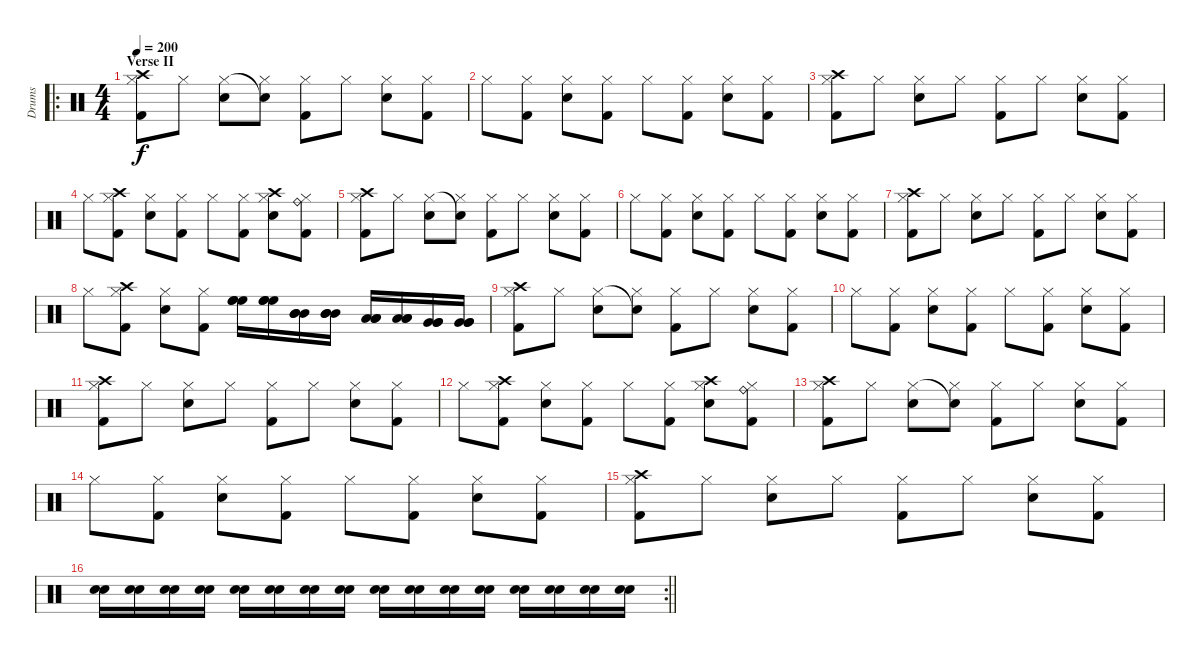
\track ("Drums" "Drums") {instrument percussion}
\staff {score}
\articulation defaults
\ro
\ts (4 4)
\section ("" "Verse II")
\tempo 200
\clef neutral
\ks c
("Crash high (hit)" "Hi-Hat (closed)" "Kick (hit) 2").8{dy f} "Hi-Hat (closed)".8 ("Hi-Hat (closed)" "Electric Snare (hit)").8 ("Snare (hit)"{t} "Hi-Hat (closed)").8 ("Hi-Hat (closed)" "Kick (hit) 2").8 "Hi-Hat (closed)".8 ("Hi-Hat (closed)" "Electric Snare (hit)").8 ("Hi-Hat (closed)" "Kick (hit) 2").8 |
"Hi-Hat (closed)".8 ("Hi-Hat (closed)" "Kick (hit) 2").8 ("Hi-Hat (closed)" "Electric Snare (hit)").8 ("Hi-Hat (closed)" "Kick (hit) 2").8 "Hi-Hat (closed)".8 ("Hi-Hat (closed)" "Kick (hit) 2").8 ("Hi-Hat (closed)" "Electric Snare (hit)").8 ("Hi-Hat (closed)" "Kick (hit) 2").8 |
("Crash high (hit)" "Hi-Hat (closed)" "Kick (hit) 2").8 "Hi-Hat (closed)".8 ("Hi-Hat (closed)" "Electric Snare (hit)").8 "Hi-Hat (closed)".8 ("Hi-Hat (closed)" "Kick (hit) 2").8 "Hi-Hat (closed)".8 ("Hi-Hat (closed)" "Electric Snare (hit)").8 ("Hi-Hat (closed)" "Kick (hit) 2").8 |
"Hi-Hat (closed)".8 ("Crash high (hit)" "Hi-Hat (closed)" "Kick (hit) 2").8 ("Hi-Hat (closed)" "Electric Snare (hit)").8 ("Hi-Hat (closed)" "Kick (hit) 2").8 "Hi-Hat (closed)".8 ("Hi-Hat (closed)" "Kick (hit) 2").8 ("Crash high (hit)" "Hi-Hat (closed)" "Electric Snare (hit)").8 ("Ride (bell)" "Hi-Hat (closed)" "Kick (hit) 2").8 |
("Crash high (hit)" "Hi-Hat (closed)" "Kick (hit) 2").8 "Hi-Hat (closed)".8 ("Hi-Hat (closed)" "Electric Snare (hit)").8 ("Snare (hit)"{t} "Hi-Hat (closed)").8 ("Hi-Hat (closed)" "Kick (hit) 2").8 "Hi-Hat (closed)".8 ("Hi-Hat (closed)" "Electric Snare (hit)").8 ("Hi-Hat (closed)" "Kick (hit) 2").8 |
"Hi-Hat (closed)".8 ("Hi-Hat (closed)" "Kick (hit) 2").8 ("Hi-Hat (closed)" "Electric Snare (hit)").8 ("Hi-Hat (closed)" "Kick (hit) 2").8 "Hi-Hat (closed)".8 ("Hi-Hat (closed)" "Kick (hit) 2").8 ("Hi-Hat (closed)" "Electric Snare (hit)").8 ("Hi-Hat (closed)" "Kick (hit) 2").8 |
("Crash high (hit)" "Hi-Hat (closed)" "Kick (hit) 2").8 "Hi-Hat (closed)".8 ("Hi-Hat (closed)" "Electric Snare (hit)").8 "Hi-Hat (closed)".8 ("Hi-Hat (closed)" "Kick (hit) 2").8 "Hi-Hat (closed)".8 ("Hi-Hat (closed)" "Electric Snare (hit)").8 ("Hi-Hat (closed)" "Kick (hit) 2").8 |
"Hi-Hat (closed)".8 ("Crash high (hit)" "Hi-Hat (closed)" "Kick (hit) 2").8 ("Hi-Hat (closed)" "Electric Snare (hit)").8 ("Hi-Hat (closed)" "Kick (hit) 2").8 ("High Floor Tom (hit)" "High Floor Tom (hit)" "High Floor Tom (hit)").16 ("High Floor Tom (hit)" "High Floor Tom (hit)" "High Floor Tom (hit)").16 ("Mid Tom (hit)" "Mid Tom (hit)" "Mid Tom (hit)").16 ("Mid Tom (hit)" "Mid Tom (hit)" "Mid Tom (hit)").16 ("Low Tom (hit)" "Low Tom (hit)" "Low Tom (hit)").16 ("Low Tom (hit)" "Low Tom (hit)" "Low Tom (hit)").16 ("Very Low Tom (hit)" "Very Low Tom (hit)" "Very Low Tom (hit)").16 ("Very Low Tom (hit)" "Very Low Tom (hit)" "Very Low Tom (hit)").16 |
("Crash high (hit)" "Hi-Hat (closed)" "Kick (hit) 2").8 "Hi-Hat (closed)".8 ("Hi-Hat (closed)" "Electric Snare (hit)").8 ("Snare (hit)"{t} "Hi-Hat (closed)").8 ("Hi-Hat (closed)" "Kick (hit) 2").8 "Hi-Hat (closed)".8 ("Hi-Hat (closed)" "Electric Snare (hit)").8 ("Hi-Hat (closed)" "Kick (hit) 2").8 |
"Hi-Hat (closed)".8 ("Hi-Hat (closed)" "Kick (hit) 2").8 ("Hi-Hat (closed)" "Electric Snare (hit)").8 ("Hi-Hat (closed)" "Kick (hit) 2").8 "Hi-Hat (closed)".8 ("Hi-Hat (closed)" "Kick (hit) 2").8 ("Hi-Hat (closed)" "Electric Snare (hit)").8 ("Hi-Hat (closed)" "Kick (hit) 2").8 |
("Crash high (hit)" "Hi-Hat (closed)" "Kick (hit) 2").8 "Hi-Hat (closed)".8 ("Hi-Hat (closed)" "Electric Snare (hit)").8 "Hi-Hat (closed)".8 ("Hi-Hat (closed)" "Kick (hit) 2").8 "Hi-Hat (closed)".8 ("Hi-Hat (closed)" "Electric Snare (hit)").8 ("Hi-Hat (closed)" "Kick (hit) 2").8 |
"Hi-Hat (closed)".8 ("Crash high (hit)" "Hi-Hat (closed)" "Kick (hit) 2").8 ("Hi-Hat (closed)" "Electric Snare (hit)").8 ("Hi-Hat (closed)" "Kick (hit) 2").8 "Hi-Hat (closed)".8 ("Hi-Hat (closed)" "Kick (hit) 2").8 ("Crash high (hit)" "Hi-Hat (closed)" "Electric Snare (hit)").8 ("Ride (bell)" "Hi-Hat (closed)" "Kick (hit) 2").8 |
("Crash high (hit)" "Hi-Hat (closed)" "Kick (hit) 2").8 "Hi-Hat (closed)".8 ("Hi-Hat (closed)" "Electric Snare (hit)").8 ("Snare (hit)"{t} "Hi-Hat (closed)").8 ("Hi-Hat (closed)" "Kick (hit) 2").8 "Hi-Hat (closed)".8 ("Hi-Hat (closed)" "Electric Snare (hit)").8 ("Hi-Hat (closed)" "Kick (hit) 2").8 |
"Hi-Hat (closed)".8 ("Hi-Hat (closed)" "Kick (hit) 2").8 ("Hi-Hat (closed)" "Electric Snare (hit)").8 ("Hi-Hat (closed)" "Kick (hit) 2").8 "Hi-Hat (closed)".8 ("Hi-Hat (closed)" "Kick (hit) 2").8 ("Hi-Hat (closed)" "Electric Snare (hit)").8 ("Hi-Hat (closed)" "Kick (hit) 2").8 |
("Crash high (hit)" "Hi-Hat (closed)" "Kick (hit) 2").8 "Hi-Hat (closed)".8 ("Hi-Hat (closed)" "Electric Snare (hit)").8 "Hi-Hat (closed)".8 ("Hi-Hat (closed)" "Kick (hit) 2").8 "Hi-Hat (closed)".8 ("Hi-Hat (closed)" "Electric Snare (hit)").8 ("Hi-Hat (closed)" "Kick (hit) 2").8 |
\rc 2
\barLineRight lightlight
("Electric Snare (hit)" "Snare (hit) 2").16 ("Electric Snare (hit)" "Snare (hit) 2").16 ("Electric Snare (hit)" "Snare (hit) 2").16 ("Electric Snare (hit)" "Snare (hit) 2").16 ("Electric Snare (hit)" "Snare (hit) 2").16 ("Electric Snare (hit)" "Snare (hit) 2").16 ("Electric Snare (hit)" "Snare (hit) 2").16 ("Electric Snare (hit)" "Snare (hit) 2").16 ("Electric Snare (hit)" "Snare (hit) 2").16 ("Electric Snare (hit)" "Snare (hit) 2").16 ("Electric Snare (hit)" "Snare (hit) 2").16 ("Electric Snare (hit)" "Snare (hit) 2").16 ("Electric Snare (hit)" "Snare (hit) 2").16 ("Electric Snare (hit)" "Snare (hit) 2").16 ("Electric Snare (hit)" "Snare (hit) 2").16 ("Electric Snare (hit)" "Snare (hit) 2").16
